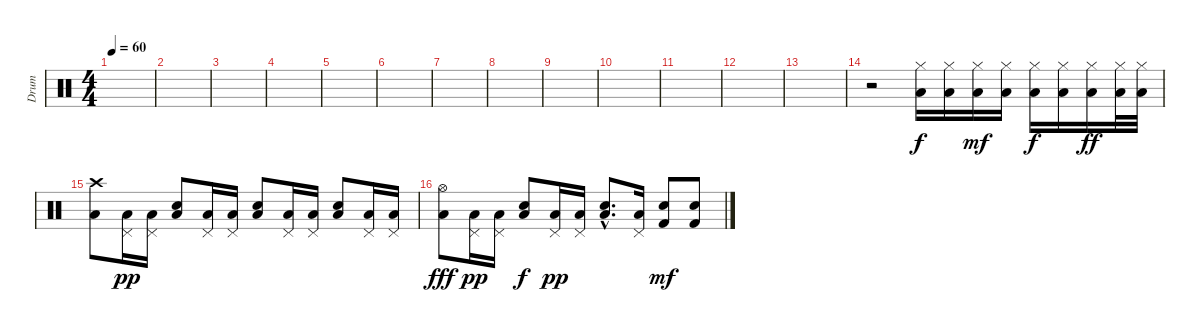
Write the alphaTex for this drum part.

\track ("Drum" "Drum") {instrument percussion}
\staff {score}
\articulation defaults
\ts (4 4)
\tempo 60
\clef neutral
\ks c
|
|
|
|
|
|
|
|
|
|
|
|
|
r.2 ("Hi-Hat (closed)" "Low Tom (hit)").16 ("Hi-Hat (closed)" "Low Tom (hit)").16 ("Hi-Hat (closed)" "Low Tom (hit)").16{dy mf} ("Hi-Hat (closed)" "Low Tom (hit)").16 ("Hi-Hat (closed)" "Low Tom (hit)").16{dy f} ("Hi-Hat (closed)" "Low Tom (hit)").16 ("Hi-Hat (closed)" "Low Tom (hit)").16{dy ff} ("Hi-Hat (closed)" "Low Tom (hit)").32 ("Hi-Hat (closed)" "Low Tom (hit)").32 |
("Crash high (hit)" "Low Tom (hit)").8 ("Pedal Hi-Hat (hit)" "Low Tom (hit)").16{dy pp} ("Pedal Hi-Hat (hit)" "Low Tom (hit)").16 ("Electric Snare (hit)" "Low Tom (hit)").8 ("Pedal Hi-Hat (hit)" "Low Tom (hit)").16 ("Pedal Hi-Hat (hit)" "Low Tom (hit)").16 ("Electric Snare (hit)" "Low Tom (hit)").8 ("Pedal Hi-Hat (hit)" "Low Tom (hit)").16 ("Pedal Hi-Hat (hit)" "Low Tom (hit)").16 ("Electric Snare (hit)" "Low Tom (hit)").8 ("Pedal Hi-Hat (hit)" "Low Tom (hit)").16 ("Pedal Hi-Hat (hit)" "Low Tom (hit)").16 |
("Hi-Hat (open)" "Low Tom (hit)").8{dy fff} ("Pedal Hi-Hat (hit)" "Low Tom (hit)").16{dy pp} ("Pedal Hi-Hat (hit)" "Low Tom (hit)").16 ("Electric Snare (hit)" "Low Tom (hit)").8{dy f} ("Pedal Hi-Hat (hit)" "Low Tom (hit)").16{dy pp} ("Pedal Hi-Hat (hit)" "Low Tom (hit)").16 ("Electric Snare (hit)"{hac} "Low Tom (hit)"{hac}).8{d} ("Pedal Hi-Hat (hit)" "Low Tom (hit)").16 ("Electric Snare (hit)" "Kick (hit) 2").8{dy mf} ("Electric Snare (hit)" "Kick (hit) 2").8
